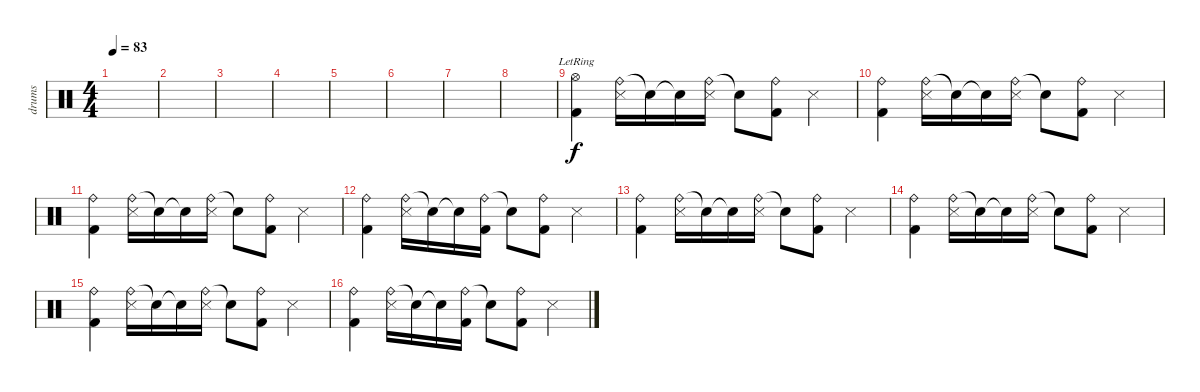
\track ("drums" "drums") {instrument percussion}
\staff {score}
\articulation defaults
\ts (4 4)
\tempo 83
\clef neutral
\ks c
|
|
|
|
|
|
|
|
("Kick (hit) 2" "Hi-Hat (open)"{lr}).4 ("Ride (bell)" "Snare (side stick) 3").16 "Snare (hit)"{t}.16 "Snare (hit)"{t}.16 ("Ride (bell)" "Snare (side stick) 3").16 "Snare (hit)"{t}.8 ("Ride (bell)" "Kick (hit) 2").8 "Snare (side stick) 3".4 |
("Ride (bell)" "Kick (hit) 2").4 ("Ride (bell)" "Snare (side stick) 3").16 "Snare (hit)"{t}.16 "Snare (hit)"{t}.16 ("Ride (bell)" "Snare (side stick) 3").16 "Snare (hit)"{t}.8 ("Ride (bell)" "Kick (hit) 2").8 "Snare (side stick) 3".4 |
("Ride (bell)" "Kick (hit) 2").4 ("Ride (bell)" "Snare (side stick) 3").16 "Snare (hit)"{t}.16 "Snare (hit)"{t}.16 ("Ride (bell)" "Snare (side stick) 3").16 "Snare (hit)"{t}.8 ("Ride (bell)" "Kick (hit) 2").8 "Snare (side stick) 3".4 |
("Ride (bell)" "Kick (hit) 2").4 ("Ride (bell)" "Snare (side stick) 3").16 "Snare (hit)"{t}.16 "Snare (hit)"{t}.16 ("Ride (bell)" "Kick (hit) 2").16 "Snare (hit)"{t}.8 ("Ride (bell)" "Kick (hit) 2").8 "Snare (side stick) 3".4 |
("Ride (bell)" "Kick (hit) 2").4 ("Ride (bell)" "Snare (side stick) 3").16 "Snare (hit)"{t}.16 "Snare (hit)"{t}.16 ("Ride (bell)" "Snare (side stick) 3").16 "Snare (hit)"{t}.8 ("Ride (bell)" "Kick (hit) 2").8 "Snare (side stick) 3".4 |
("Ride (bell)" "Kick (hit) 2").4 ("Ride (bell)" "Snare (side stick) 3").16 "Snare (hit)"{t}.16 "Snare (hit)"{t}.16 ("Ride (bell)" "Snare (side stick) 3").16 "Snare (hit)"{t}.8 ("Ride (bell)" "Kick (hit) 2").8 "Snare (side stick) 3".4 |
("Ride (bell)" "Kick (hit) 2").4 ("Ride (bell)" "Snare (side stick) 3").16 "Snare (hit)"{t}.16 "Snare (hit)"{t}.16 ("Ride (bell)" "Snare (side stick) 3").16 "Snare (hit)"{t}.8 ("Ride (bell)" "Kick (hit) 2").8 "Snare (side stick) 3".4 |
("Ride (bell)" "Kick (hit) 2").4 ("Ride (bell)" "Snare (side stick) 3").16 "Snare (hit)"{t}.16 "Snare (hit)"{t}.16 ("Ride (bell)" "Kick (hit) 2").16 "Snare (hit)"{t}.8 ("Ride (bell)" "Kick (hit) 2").8 "Snare (side stick) 3".4
